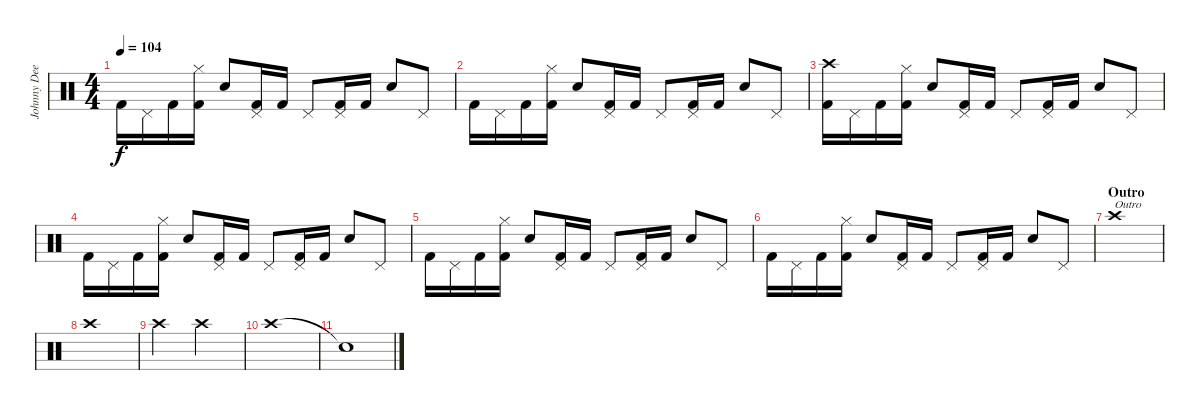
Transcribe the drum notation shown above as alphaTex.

\track ("Johnny Dee" "Johnny Dee") {instrument percussion}
\staff {score}
\articulation defaults
\ts (4 4)
\tempo 104
\clef neutral
\ks c "Kick (hit) 2".16{dy f} "Pedal Hi-Hat (hit)".16 "Kick (hit) 2".16
("Hi-Hat (closed)" "Kick (hit) 2").16 "Snare (hit) 2".8 ("Pedal Hi-Hat (hit)" "Kick (hit) 2").16 "Kick (hit) 2".16 "Pedal Hi-Hat (hit)".8 ("Pedal Hi-Hat (hit)" "Kick (hit) 2").16 "Kick (hit) 2".16 "Snare (hit) 2".8 "Pedal Hi-Hat (hit)".8 |
"Kick (hit) 2".16 "Pedal Hi-Hat (hit)".16 "Kick (hit) 2".16 ("Hi-Hat (closed)" "Kick (hit) 2").16 "Snare (hit) 2".8 ("Pedal Hi-Hat (hit)" "Kick (hit) 2").16 "Kick (hit) 2".16 "Pedal Hi-Hat (hit)".8 ("Pedal Hi-Hat (hit)" "Kick (hit) 2").16 "Kick (hit) 2".16 "Snare (hit) 2".8 "Pedal Hi-Hat (hit)".8 |
("Crash high (hit)" "Kick (hit) 2").16 "Pedal Hi-Hat (hit)".16 "Kick (hit) 2".16 ("Hi-Hat (closed)" "Kick (hit) 2").16 "Snare (hit) 2".8 ("Pedal Hi-Hat (hit)" "Kick (hit) 2").16 "Kick (hit) 2".16 "Pedal Hi-Hat (hit)".8 ("Pedal Hi-Hat (hit)" "Kick (hit) 2").16 "Kick (hit) 2".16 "Snare (hit) 2".8 "Pedal Hi-Hat (hit)".8 |
"Kick (hit) 2".16 "Pedal Hi-Hat (hit)".16 "Kick (hit) 2".16 ("Hi-Hat (closed)" "Kick (hit) 2").16 "Snare (hit) 2".8 ("Pedal Hi-Hat (hit)" "Kick (hit) 2").16 "Kick (hit) 2".16 "Pedal Hi-Hat (hit)".8 ("Pedal Hi-Hat (hit)" "Kick (hit) 2").16 "Kick (hit) 2".16 "Snare (hit) 2".8 "Pedal Hi-Hat (hit)".8 |
"Kick (hit) 2".16 "Pedal Hi-Hat (hit)".16 "Kick (hit) 2".16 ("Hi-Hat (closed)" "Kick (hit) 2").16 "Snare (hit) 2".8 ("Pedal Hi-Hat (hit)" "Kick (hit) 2").16 "Kick (hit) 2".16 "Pedal Hi-Hat (hit)".8 ("Pedal Hi-Hat (hit)" "Kick (hit) 2").16 "Kick (hit) 2".16 "Snare (hit) 2".8 "Pedal Hi-Hat (hit)".8 |
"Kick (hit) 2".16 "Pedal Hi-Hat (hit)".16 "Kick (hit) 2".16 ("Hi-Hat (closed)" "Kick (hit) 2").16 "Snare (hit) 2".8 ("Pedal Hi-Hat (hit)" "Kick (hit) 2").16 "Kick (hit) 2".16 "Pedal Hi-Hat (hit)".8 ("Pedal Hi-Hat (hit)" "Kick (hit) 2").16 "Kick (hit) 2".16 "Snare (hit) 2".8 "Pedal Hi-Hat (hit)".8 |
\section ("" "Outro")
"Crash high (hit)".1{txt "Outro"} |
"Crash high (hit)".1 |
"Crash high (hit)".2 "Crash high (hit)".2 |
"Crash high (hit)".1 |
"Snare (hit)"{t}.1
